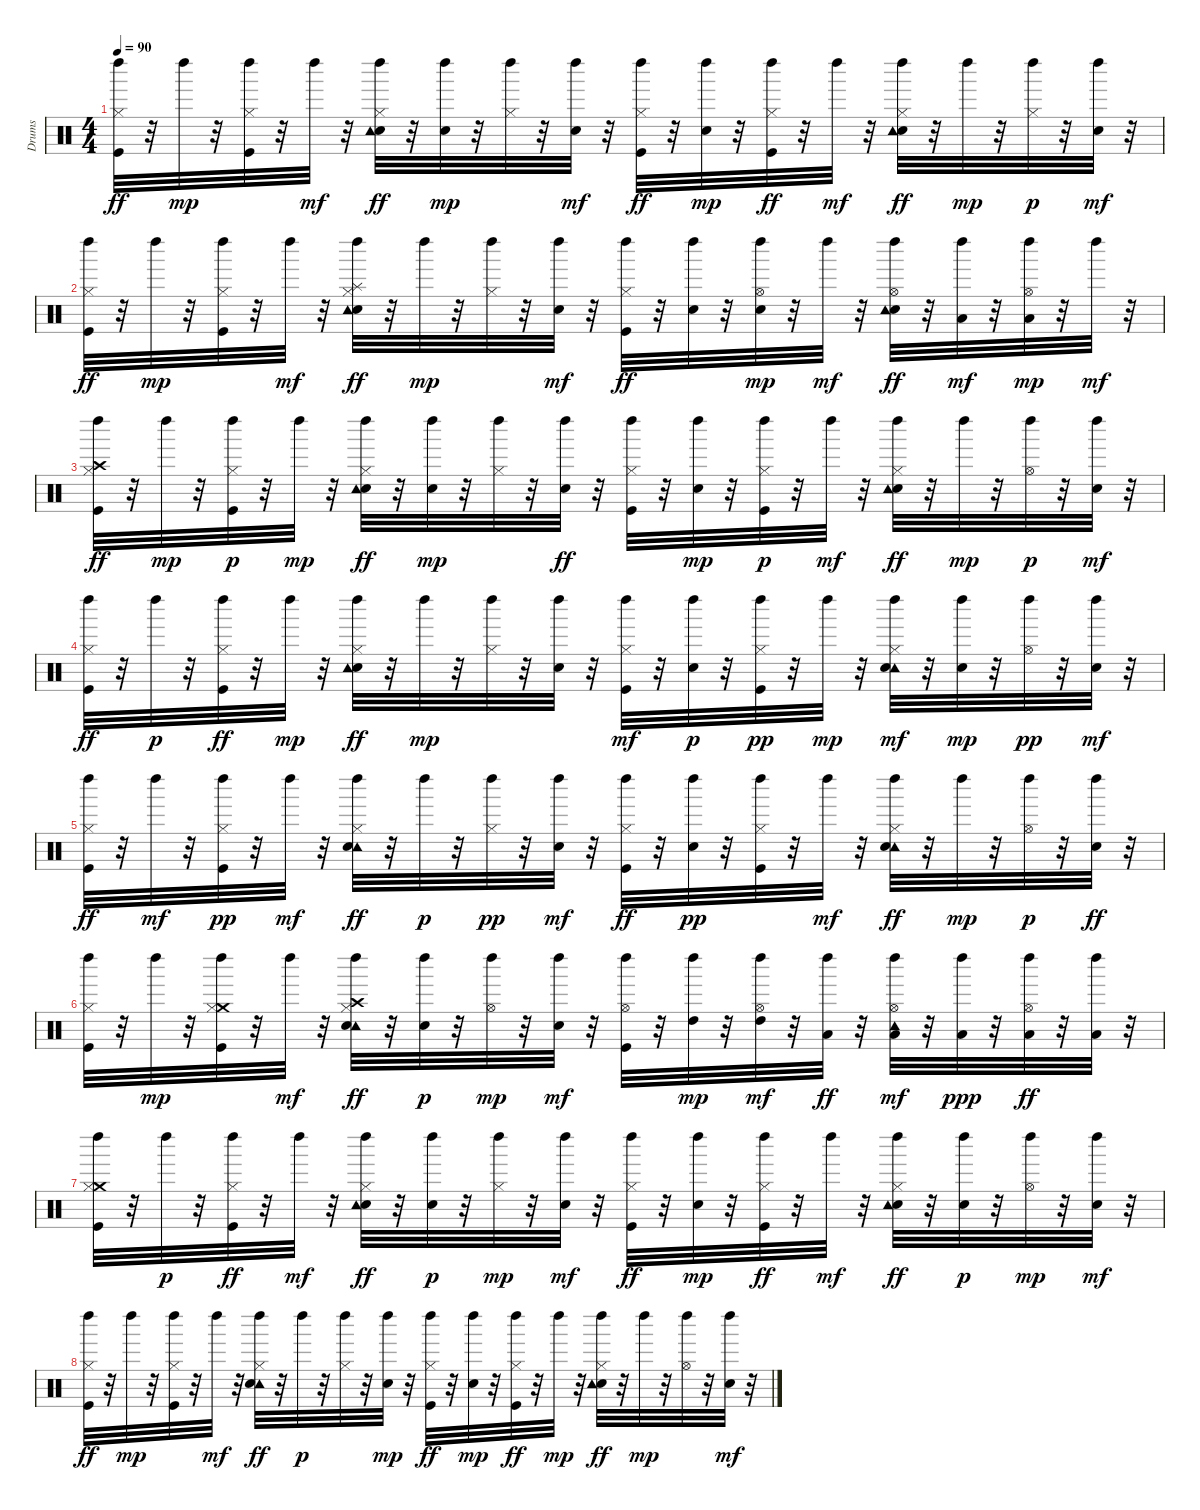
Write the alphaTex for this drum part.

\track ("Drums" "Drums") {instrument percussion}
\staff {score}
\articulation defaults
\ts (4 4)
\tempo 90
\clef neutral
\ks c
("Hi-Hat (closed)" "Kick (hit)" "Left Maraca (hit)").32{dy ff} r.32 "Left Maraca (hit)".32{dy mp} r.32 ("Hi-Hat (closed)" "Kick (hit)" "Left Maraca (hit)").32 r.32 "Left Maraca (hit)".32{dy mf} r.32 ("Hi-Hat (closed)" "Electric Snare (hit)" "Tambourine (hit)" "Left Maraca (hit)").32{dy ff} r.32 ("Electric Snare (hit)" "Left Maraca (hit)").32{dy mp} r.32 ("Hi-Hat (closed)" "Left Maraca (hit)").32 r.32 ("Electric Snare (hit)" "Left Maraca (hit)").32{dy mf} r.32 ("Hi-Hat (closed)" "Kick (hit)" "Left Maraca (hit)").32{dy ff} r.32 ("Electric Snare (hit)" "Left Maraca (hit)").32{dy mp} r.32 ("Left Maraca (hit)" "Hi-Hat (closed)" "Kick (hit)").32{dy ff} r.32 "Left Maraca (hit)".32{dy mf} r.32 ("Electric Snare (hit)" "Tambourine (hit)" "Left Maraca (hit)" "Hi-Hat (closed)").32{dy ff} r.32 "Left Maraca (hit)".32{dy mp} r.32 ("Left Maraca (hit)" "Hi-Hat (closed)").32{dy p} r.32 ("Left Maraca (hit)" "Electric Snare (hit)").32{dy mf} r.32 |
("Kick (hit)" "Left Maraca (hit)" "Hi-Hat (closed)").32{dy ff} r.32 "Left Maraca (hit)".32{dy mp} r.32 ("Hi-Hat (closed)" "Kick (hit)" "Left Maraca (hit)").32 r.32 "Left Maraca (hit)".32{dy mf} r.32 ("Hi-Hat (closed)" "Electric Snare (hit)" "Splash (hit)" "Tambourine (hit)" "Left Maraca (hit)").32{dy ff} r.32 "Left Maraca (hit)".32{dy mp} r.32 ("Hi-Hat (closed)" "Left Maraca (hit)").32 r.32 ("Electric Snare (hit)" "Left Maraca (hit)").32{dy mf} r.32 ("Hi-Hat (closed)" "Left Maraca (hit)" "Kick (hit)").32{dy ff} r.32 ("Left Maraca (hit)" "Electric Snare (hit)").32 r.32 ("Hi-Hat (open)" "Electric Snare (hit)" "Left Maraca (hit)").32{dy mp} r.32 "Left Maraca (hit)".32{dy mf} r.32 ("Hi-Hat (open)" "Electric Snare (hit)" "Tambourine (hit)" "Left Maraca (hit)").32{dy ff} r.32 ("Low Tom (hit)" "Left Maraca (hit)").32{dy mf} r.32 ("Hi-Hat (open)" "Low Floor Tom (hit)" "Left Maraca (hit)").32{dy mp} r.32 "Left Maraca (hit)".32{dy mf} r.32 |
("Hi-Hat (closed)" "Left Maraca (hit)" "Crash high (hit)" "Kick (hit)").32{dy ff} r.32 "Left Maraca (hit)".32{dy mp} r.32 ("Hi-Hat (closed)" "Kick (hit)" "Left Maraca (hit)").32{dy p} r.32 "Left Maraca (hit)".32{dy mp} r.32 ("Electric Snare (hit)" "Left Maraca (hit)" "Hi-Hat (closed)" "Tambourine (hit)").32{dy ff} r.32 ("Electric Snare (hit)" "Left Maraca (hit)").32{dy mp} r.32 ("Hi-Hat (closed)" "Left Maraca (hit)").32 r.32 ("Left Maraca (hit)" "Electric Snare (hit)").32{dy ff} r.32 ("Hi-Hat (closed)" "Kick (hit)" "Left Maraca (hit)").32 r.32 ("Electric Snare (hit)" "Left Maraca (hit)").32{dy mp} r.32 ("Hi-Hat (closed)" "Kick (hit)" "Left Maraca (hit)").32{dy p} r.32 "Left Maraca (hit)".32{dy mf} r.32 ("Hi-Hat (closed)" "Electric Snare (hit)" "Left Maraca (hit)" "Tambourine (hit)").32{dy ff} r.32 "Left Maraca (hit)".32{dy mp} r.32 ("Hi-Hat (open)" "Left Maraca (hit)").32{dy p} r.32 ("Electric Snare (hit)" "Left Maraca (hit)").32{dy mf} r.32 |
("Left Maraca (hit)" "Hi-Hat (closed)" "Kick (hit)").32{dy ff} r.32 "Left Maraca (hit)".32{dy p} r.32 ("Hi-Hat (closed)" "Left Maraca (hit)" "Kick (hit)").32{dy ff} r.32 "Left Maraca (hit)".32{dy mp} r.32 ("Hi-Hat (closed)" "Electric Snare (hit)" "Tambourine (hit)" "Left Maraca (hit)").32{dy ff} r.32 "Left Maraca (hit)".32{dy mp} r.32 ("Hi-Hat (closed)" "Left Maraca (hit)").32 r.32 ("Left Maraca (hit)" "Electric Snare (hit)").32 r.32 ("Kick (hit)" "Left Maraca (hit)" "Hi-Hat (closed)").32{dy mf} r.32 ("Left Maraca (hit)" "Electric Snare (hit)").32{dy p} r.32 ("Hi-Hat (closed)" "Kick (hit)" "Left Maraca (hit)").32{dy pp} r.32 "Left Maraca (hit)".32{dy mp} r.32 ("Tambourine (hit)" "Electric Snare (hit)" "Hi-Hat (closed)" "Left Maraca (hit)").32{dy mf} r.32 ("Electric Snare (hit)" "Left Maraca (hit)").32{dy mp} r.32 ("Hi-Hat (open)" "Left Maraca (hit)").32{dy pp} r.32 ("Electric Snare (hit)" "Left Maraca (hit)").32{dy mf} r.32 |
("Hi-Hat (closed)" "Kick (hit)" "Left Maraca (hit)").32{dy ff} r.32 "Left Maraca (hit)".32{dy mf} r.32 ("Hi-Hat (closed)" "Kick (hit)" "Left Maraca (hit)").32{dy pp} r.32 "Left Maraca (hit)".32{dy mf} r.32 ("Tambourine (hit)" "Hi-Hat (closed)" "Electric Snare (hit)" "Left Maraca (hit)").32{dy ff} r.32 "Left Maraca (hit)".32{dy p} r.32 ("Hi-Hat (closed)" "Left Maraca (hit)").32{dy pp} r.32 ("Electric Snare (hit)" "Left Maraca (hit)").32{dy mf} r.32 ("Kick (hit)" "Hi-Hat (closed)" "Left Maraca (hit)").32{dy ff} r.32 ("Electric Snare (hit)" "Left Maraca (hit)").32{dy pp} r.32 ("Hi-Hat (closed)" "Kick (hit)" "Left Maraca (hit)").32 r.32 "Left Maraca (hit)".32{dy mf} r.32 ("Tambourine (hit)" "Hi-Hat (closed)" "Left Maraca (hit)" "Electric Snare (hit)").32{dy ff} r.32 "Left Maraca (hit)".32{dy mp} r.32 ("Hi-Hat (open)" "Left Maraca (hit)").32{dy p} r.32 ("Electric Snare (hit)" "Left Maraca (hit)").32{dy ff} r.32 |
("Hi-Hat (closed)" "Kick (hit)" "Left Maraca (hit)").32 r.32 "Left Maraca (hit)".32{dy mp} r.32 ("Crash medium (hit)" "Hi-Hat (closed)" "Kick (hit)" "Left Maraca (hit)").32 r.32 "Left Maraca (hit)".32{dy mf} r.32 ("Crash high (hit)" "Tambourine (hit)" "Hi-Hat (closed)" "Electric Snare (hit)" "Left Maraca (hit)").32{dy ff} r.32 ("Electric Snare (hit)" "Left Maraca (hit)").32{dy p} r.32 ("Hi-Hat (open)" "Left Maraca (hit)").32{dy mp} r.32 ("Electric Snare (hit)" "Left Maraca (hit)").32{dy mf} r.32 ("Hi-Hat (open)" "Kick (hit)" "Left Maraca (hit)").32 r.32 ("High Tom (hit)" "Left Maraca (hit)").32{dy mp} r.32 ("High Tom (hit)" "Hi-Hat (open)" "Left Maraca (hit)").32{dy mf} r.32 ("Left Maraca (hit)" "Low Tom (hit)").32{dy ff} r.32 ("Tambourine (hit)" "Left Maraca (hit)" "Low Tom (hit)" "Hi-Hat (open)").32{dy mf} r.32 ("Low Tom (hit)" "Left Maraca (hit)").32{dy ppp} r.32 ("Hi-Hat (open)" "Left Maraca (hit)" "Low Floor Tom (hit)").32{dy ff} r.32 ("Left Maraca (hit)" "Low Floor Tom (hit)").32 r.32 |
("Left Maraca (hit)" "Kick (hit)" "Crash medium (hit)" "Hi-Hat (closed)").32 r.32 "Left Maraca (hit)".32{dy p} r.32 ("Left Maraca (hit)" "Hi-Hat (closed)" "Kick (hit)").32{dy ff} r.32 "Left Maraca (hit)".32{dy mf} r.32 ("Hi-Hat (closed)" "Electric Snare (hit)" "Tambourine (hit)" "Left Maraca (hit)").32{dy ff} r.32 ("Electric Snare (hit)" "Left Maraca (hit)").32{dy p} r.32 ("Hi-Hat (closed)" "Left Maraca (hit)").32{dy mp} r.32 ("Electric Snare (hit)" "Left Maraca (hit)").32{dy mf} r.32 ("Hi-Hat (closed)" "Kick (hit)" "Left Maraca (hit)").32{dy ff} r.32 ("Electric Snare (hit)" "Left Maraca (hit)").32{dy mp} r.32 ("Hi-Hat (closed)" "Left Maraca (hit)" "Kick (hit)").32{dy ff} r.32 "Left Maraca (hit)".32{dy mf} r.32 ("Hi-Hat (closed)" "Electric Snare (hit)" "Left Maraca (hit)" "Tambourine (hit)").32{dy ff} r.32 ("Electric Snare (hit)" "Left Maraca (hit)").32{dy p} r.32 ("Hi-Hat (open)" "Left Maraca (hit)").32{dy mp} r.32 ("Electric Snare (hit)" "Left Maraca (hit)").32{dy mf} r.32 |
("Hi-Hat (closed)" "Kick (hit)" "Left Maraca (hit)").32{dy ff} r.32 "Left Maraca (hit)".32{dy mp} r.32 ("Hi-Hat (closed)" "Kick (hit)" "Left Maraca (hit)").32 r.32 "Left Maraca (hit)".32{dy mf} r.32 ("Tambourine (hit)" "Hi-Hat (closed)" "Electric Snare (hit)" "Left Maraca (hit)").32{dy ff} r.32 "Left Maraca (hit)".32{dy p} r.32 ("Hi-Hat (closed)" "Left Maraca (hit)").32 r.32 ("Electric Snare (hit)" "Left Maraca (hit)").32{dy mp} r.32 ("Kick (hit)" "Left Maraca (hit)" "Hi-Hat (closed)").32{dy ff} r.32 ("Electric Snare (hit)" "Left Maraca (hit)").32{dy mp} r.32 ("Left Maraca (hit)" "Hi-Hat (closed)" "Kick (hit)").32{dy ff} r.32 "Left Maraca (hit)".32{dy mp} r.32 ("Electric Snare (hit)" "Tambourine (hit)" "Left Maraca (hit)" "Hi-Hat (closed)").32{dy ff} r.32 "Left Maraca (hit)".32{dy mp} r.32 ("Hi-Hat (open)" "Left Maraca (hit)").32 r.32 ("Electric Snare (hit)" "Left Maraca (hit)").32{dy mf} r.32
